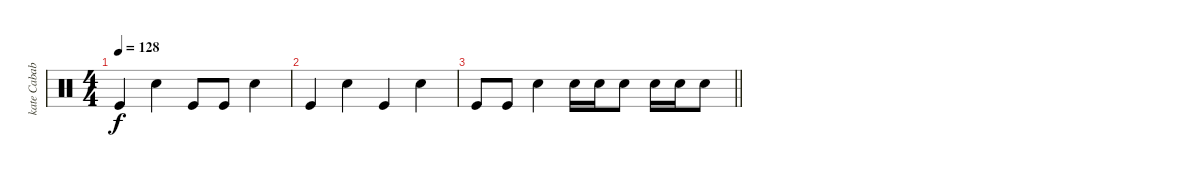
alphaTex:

\track ("kate Cababe" "kate Cabab") {instrument percussion}
\staff {score}
\articulation defaults
\ts (4 4)
\tempo 128
\clef neutral
\ks c "Kick (hit)".4{dy f} "Snare (hit) 2".4 "Kick (hit)".8 "Kick (hit)".8 "Snare (hit) 2".4
|
"Kick (hit)".4 "Snare (hit) 2".4 "Kick (hit)".4 "Snare (hit) 2".4 |
\barLineRight lightlight "Kick (hit)".8 "Kick (hit)".8 "Snare (hit) 2".4 "Snare (hit) 2".16 "Snare (hit) 2".16 "Snare (hit) 2".8 "Snare (hit) 2".16 "Snare (hit) 2".16 "Snare (hit) 2".8
